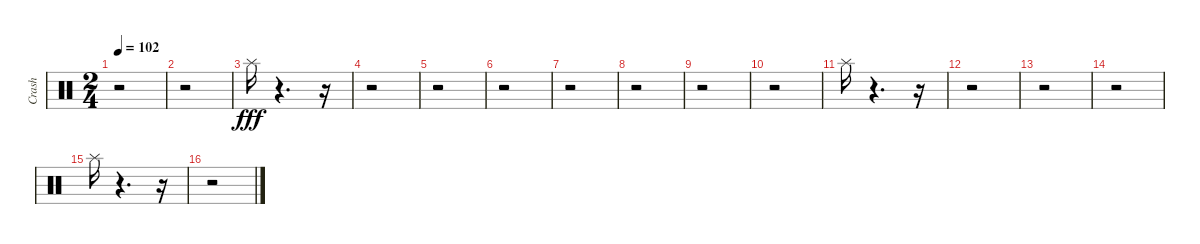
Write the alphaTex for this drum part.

\track ("Crash" "Crash") {instrument percussion}
\staff {score}
\articulation defaults
\ts (2 4)
\tempo 102
\clef neutral
\ks c
r.2{dy f} |
r.2 |
"Splash (hit)".16{dy fff} r.4{d} r.16 |
r.2 |
r.2 |
r.2 |
r.2 |
r.2 |
r.2 |
r.2 |
"Splash (hit)".16 r.4{d} r.16 |
r.2 |
r.2 |
r.2 |
"Splash (hit)".16 r.4{d} r.16 |
r.2
